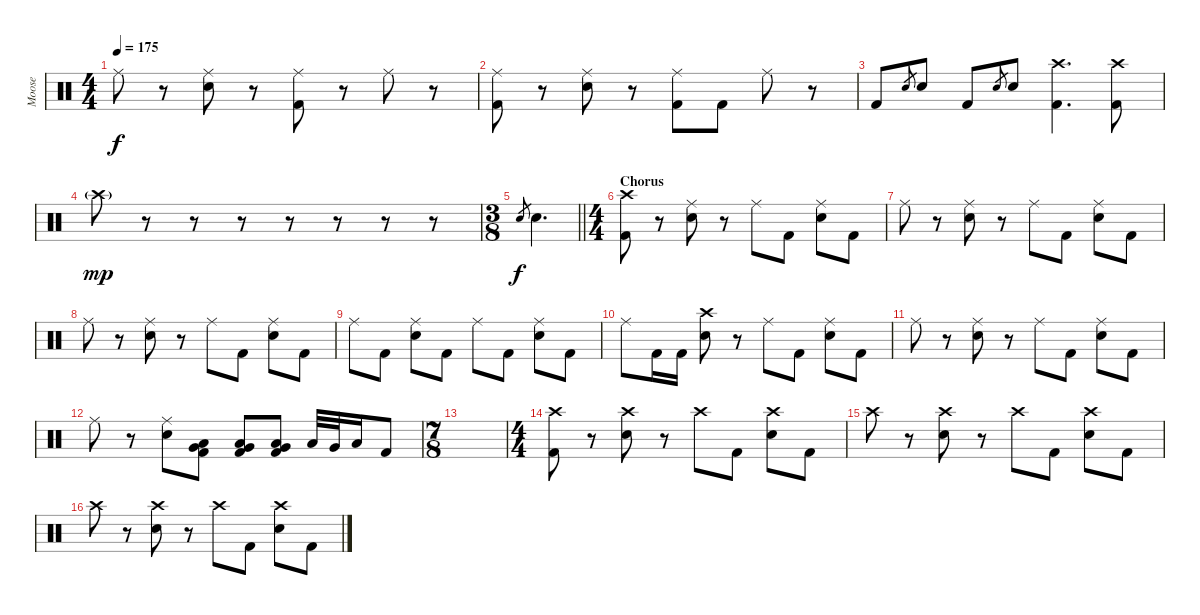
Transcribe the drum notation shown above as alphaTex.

\track ("Moose" "Moose") {instrument percussion}
\staff {score}
\articulation defaults
\ts (4 4)
\tempo 175
\clef neutral
\ks c "Ride (middle)".8{dy f}
r.8 ("Ride (middle)" "Electric Snare (hit)").8 r.8 ("Ride (middle)" "Kick (hit) 2").8 r.8 "Ride (middle)".8 r.8 |
("Ride (middle)" "Kick (hit) 2").8 r.8 ("Ride (middle)" "Electric Snare (hit)").8 r.8 ("Ride (middle)" "Kick (hit) 2").8 "Kick (hit) 2".8 "Ride (middle)".8 r.8 |
"Kick (hit) 2".8 "Electric Snare (hit)".8{gr} "Electric Snare (hit)".8 "Kick (hit) 2".8 "Electric Snare (hit)".8{gr} "Electric Snare (hit)".8 ("Crash high (hit)" "Kick (hit) 2").4{d} ("Crash high (hit)" "Kick (hit) 2").8 |
"Crash high (hit)"{g}.8{dy mp volume 0} r.8 r.8 r.8 r.8 r.8{volume 16} r.8 r.8 |
\ts (3 8)
\barLineRight lightlight "Electric Snare (hit)".8{gr dy f} "Electric Snare (hit)".4{d}
|
\ts (4 4)
\section ("" "Chorus")
("Crash high (hit)" "Kick (hit) 2").8{volume 16} r.8 ("Ride (middle)" "Electric Snare (hit)").8 r.8 "Ride (middle)".8 "Kick (hit) 2".8 ("Ride (middle)" "Electric Snare (hit)").8 "Kick (hit) 2".8 |
"Ride (middle)".8 r.8 ("Ride (middle)" "Electric Snare (hit)").8 r.8 "Ride (middle)".8 "Kick (hit) 2".8 ("Ride (middle)" "Electric Snare (hit)").8 "Kick (hit) 2".8 |
"Ride (middle)".8 r.8 ("Ride (middle)" "Electric Snare (hit)").8 r.8 "Ride (middle)".8 "Kick (hit) 2".8 ("Ride (middle)" "Electric Snare (hit)").8 "Kick (hit) 2".8 |
"Ride (middle)".8 "Kick (hit) 2".8 ("Ride (middle)" "Electric Snare (hit)").8 "Kick (hit) 2".8 "Ride (middle)".8 "Kick (hit) 2".8 ("Ride (middle)" "Electric Snare (hit)").8 "Kick (hit) 2".8 |
"Ride (middle)".8 "Kick (hit) 2".16 "Kick (hit) 2".16 ("Crash high (hit)" "Electric Snare (hit)").8 r.8 "Ride (middle)".8 "Kick (hit) 2".8 ("Ride (middle)" "Electric Snare (hit)").8 "Kick (hit) 2".8 |
"Ride (middle)".8 r.8 ("Ride (middle)" "Electric Snare (hit)").8 r.8 "Ride (middle)".8 "Kick (hit) 2".8 ("Ride (middle)" "Electric Snare (hit)").8 "Kick (hit) 2".8 |
"Ride (middle)".8 r.8 ("Ride (middle)" "Electric Snare (hit)").8 ("Low Floor Tom (hit)" "Very Low Tom (hit)" "Kick (hit) 2").8 ("Low Floor Tom (hit)" "Very Low Tom (hit)" "Kick (hit) 2").8 ("Low Floor Tom (hit)" "Very Low Tom (hit)" "Kick (hit) 2").8 "Low Tom (hit)".32 "Very Low Tom (hit)".32 "Low Floor Tom (hit)".16 "Kick (hit) 2".8 |
\ts (7 8)
|
\ts (4 4)
("Crash high (hit)" "Kick (hit) 2").8{volume 16} r.8 ("Crash high (hit)" "Electric Snare (hit)").8 r.8 "Crash high (hit)".8 "Kick (hit) 2".8 ("Crash high (hit)" "Electric Snare (hit)").8 "Kick (hit) 2".8 |
"Crash high (hit)".8 r.8 ("Crash high (hit)" "Electric Snare (hit)").8 r.8 "Crash high (hit)".8 "Kick (hit) 2".8 ("Crash high (hit)" "Electric Snare (hit)").8 "Kick (hit) 2".8 |
"Crash high (hit)".8 r.8 ("Crash high (hit)" "Electric Snare (hit)").8 r.8 "Crash high (hit)".8 "Kick (hit) 2".8 ("Crash high (hit)" "Electric Snare (hit)").8 "Kick (hit) 2".8
